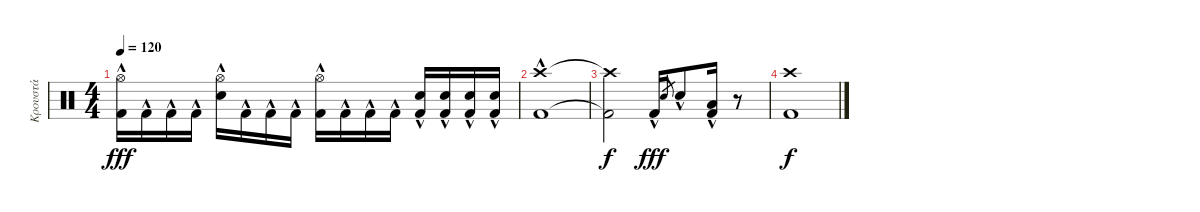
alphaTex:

\track ("Κρουστά" "Κρουστά") {instrument percussion}
\staff {score}
\articulation defaults
\ts (4 4)
\tempo 120
\clef neutral
\ks c
("Kick (hit) 2"{hac} "Hi-Hat (open)").16{dy fff} "Kick (hit) 2"{hac}.16 "Kick (hit) 2"{hac}.16 "Kick (hit) 2"{hac}.16 ("Electric Snare (hit)"{hac} "Hi-Hat (open)").16 "Kick (hit) 2"{hac}.16 "Kick (hit) 2"{hac}.16 "Kick (hit) 2"{hac}.16 ("Kick (hit) 2"{hac} "Hi-Hat (open)").16 "Kick (hit) 2"{hac}.16 "Kick (hit) 2"{hac}.16 "Kick (hit) 2"{hac}.16 ("Electric Snare (hit)"{hac} "Kick (hit) 2"{hac}).16 ("Electric Snare (hit)"{hac} "Kick (hit) 2"{hac}).16 ("Electric Snare (hit)"{hac} "Kick (hit) 2"{hac}).16 ("Electric Snare (hit)"{hac} "Kick (hit) 2"{hac}).16 |
("Kick (hit) 2"{hac} "Crash high (hit)").1 |
("Kick (hit) 2"{t} "Crash high (hit)"{t}).2{dy f} "Kick (hit) 2"{hac}.16{dy fff} "Electric Snare (hit)".8{gr} "Electric Snare (hit)"{hac}.8 ("Kick (hit) 2"{hac} "Low Tom (hit)").16 r.8 |
("Kick (hit) 2" "Crash high (hit)").1{dy f}
